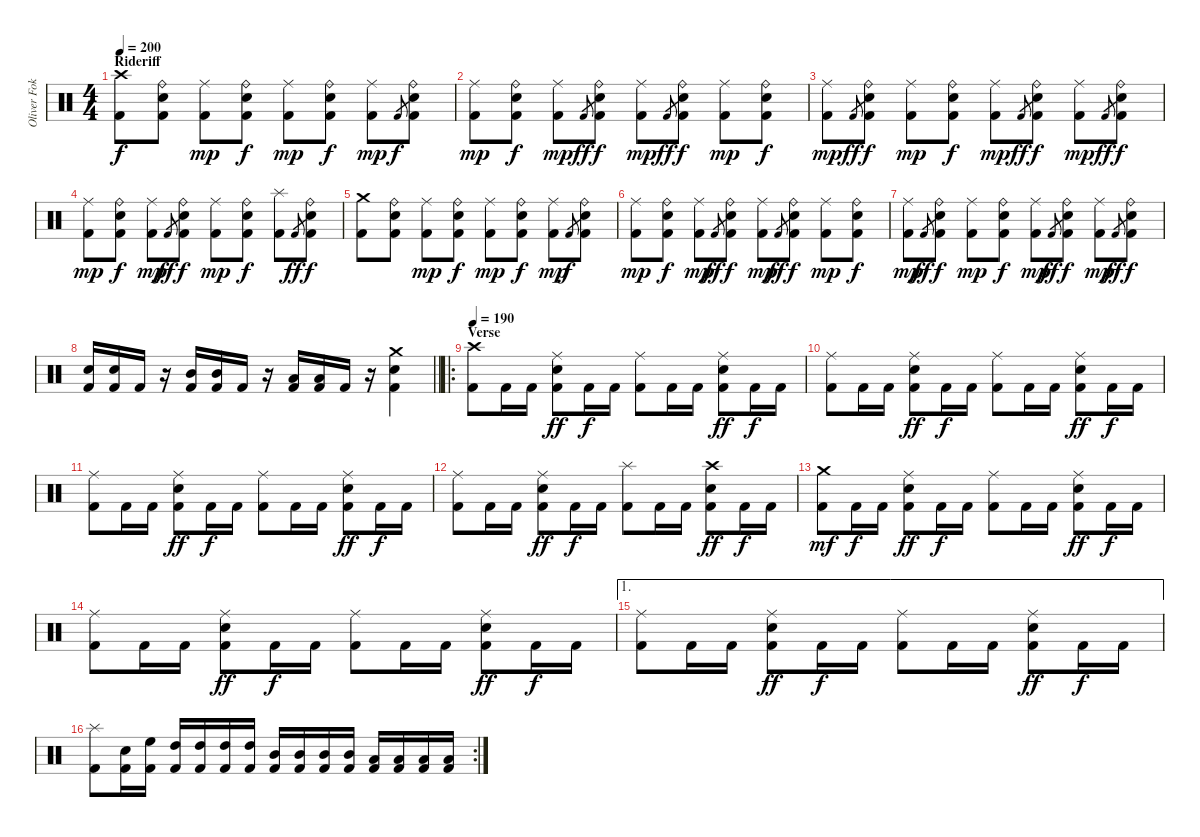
\track ("Oliver Fokin" "Oliver Fok") {instrument percussion}
\staff {score}
\articulation defaults
\ts (4 4)
\section ("" "Rideriff")
\tempo 200
\clef neutral
\ks c
("Crash high (hit)" "Kick (hit) 2").8{dy f} ("Ride (bell)" "Electric Snare (hit)" "Kick (hit) 2").8 ("Ride (middle)" "Kick (hit) 2").8{dy mp} ("Ride (bell)" "Electric Snare (hit)" "Kick (hit) 2").8{dy f} ("Ride (middle)" "Kick (hit) 2").8{dy mp} ("Ride (bell)" "Electric Snare (hit)" "Kick (hit) 2").8{dy f} ("Ride (middle)" "Kick (hit) 2").8{dy mp} "Kick (hit) 2".8{gr dy f} ("Ride (bell)" "Electric Snare (hit)" "Kick (hit) 2").8 |
("Ride (middle)" "Kick (hit) 2").8{dy mp} ("Ride (bell)" "Electric Snare (hit)" "Kick (hit) 2").8{dy f} ("Ride (middle)" "Kick (hit) 2").8{dy mp} "Kick (hit) 2".8{gr dy ff} ("Ride (bell)" "Electric Snare (hit)" "Kick (hit) 2").8{dy f} ("Ride (middle)" "Kick (hit) 2").8{dy mp} "Kick (hit) 2".8{gr dy ff} ("Ride (bell)" "Electric Snare (hit)" "Kick (hit) 2").8{dy f} ("Ride (middle)" "Kick (hit) 2").8{dy mp} ("Ride (bell)" "Electric Snare (hit)" "Kick (hit) 2").8{dy f} |
("Ride (middle)" "Kick (hit) 2").8{dy mp} "Kick (hit) 2".8{gr dy ff} ("Ride (bell)" "Electric Snare (hit)" "Kick (hit) 2").8{dy f} ("Ride (middle)" "Kick (hit) 2").8{dy mp} ("Ride (bell)" "Electric Snare (hit)" "Kick (hit) 2").8{dy f} ("Ride (middle)" "Kick (hit) 2").8{dy mp} "Kick (hit) 2".8{gr dy ff} ("Ride (bell)" "Electric Snare (hit)" "Kick (hit) 2").8{dy f} ("Ride (middle)" "Kick (hit) 2").8{dy mp} "Kick (hit) 2".8{gr dy ff} ("Ride (bell)" "Electric Snare (hit)" "Kick (hit) 2").8{dy f} |
("Ride (middle)" "Kick (hit) 2").8{dy mp} ("Ride (bell)" "Electric Snare (hit)" "Kick (hit) 2").8{dy f} ("Ride (middle)" "Kick (hit) 2").8{dy mp} "Kick (hit) 2".8{gr dy ff} ("Ride (bell)" "Electric Snare (hit)" "Kick (hit) 2").8{dy f} ("Ride (middle)" "Kick (hit) 2").8{dy mp} ("Ride (bell)" "Electric Snare (hit)" "Kick (hit) 2").8{dy f} ("Splash (hit)" "Kick (hit) 2").8 "Kick (hit) 2".8{gr dy ff} ("Ride (bell)" "Electric Snare (hit)" "Kick (hit) 2").8{dy f} |
("Crash medium (hit)" "Kick (hit) 2").8 ("Ride (bell)" "Electric Snare (hit)" "Kick (hit) 2").8 ("Ride (middle)" "Kick (hit) 2").8{dy mp} ("Ride (bell)" "Electric Snare (hit)" "Kick (hit) 2").8{dy f} ("Ride (middle)" "Kick (hit) 2").8{dy mp} ("Ride (bell)" "Electric Snare (hit)" "Kick (hit) 2").8{dy f} ("Ride (middle)" "Kick (hit) 2").8{dy mp} "Kick (hit) 2".8{gr dy f} ("Ride (bell)" "Electric Snare (hit)" "Kick (hit) 2").8 |
("Ride (middle)" "Kick (hit) 2").8{dy mp} ("Ride (bell)" "Electric Snare (hit)" "Kick (hit) 2").8{dy f} ("Ride (middle)" "Kick (hit) 2").8{dy mp} "Kick (hit) 2".8{gr dy ff} ("Ride (bell)" "Electric Snare (hit)" "Kick (hit) 2").8{dy f} ("Ride (middle)" "Kick (hit) 2").8{dy mp} "Kick (hit) 2".8{gr dy ff} ("Ride (bell)" "Electric Snare (hit)" "Kick (hit) 2").8{dy f} ("Ride (middle)" "Kick (hit) 2").8{dy mp} ("Ride (bell)" "Electric Snare (hit)" "Kick (hit) 2").8{dy f} |
("Ride (middle)" "Kick (hit) 2").8{dy mp} "Kick (hit) 2".8{gr dy ff} ("Ride (bell)" "Electric Snare (hit)" "Kick (hit) 2").8{dy f} ("Ride (middle)" "Kick (hit) 2").8{dy mp} ("Ride (bell)" "Electric Snare (hit)" "Kick (hit) 2").8{dy f} ("Ride (middle)" "Kick (hit) 2").8{dy mp} "Kick (hit) 2".8{gr dy ff} ("Ride (bell)" "Electric Snare (hit)" "Kick (hit) 2").8{dy f} ("Ride (middle)" "Kick (hit) 2").8{dy mp} "Kick (hit) 2".8{gr dy ff} ("Ride (bell)" "Electric Snare (hit)" "Kick (hit) 2").8{dy f} |
\barLineRight lightlight
("Electric Snare (hit)" "Kick (hit) 2").16 ("Electric Snare (hit)" "Kick (hit) 2").16 "Kick (hit) 2".16 r.16 ("Mid Tom (hit)" "Kick (hit) 2").16 ("Mid Tom (hit)" "Kick (hit) 2").16 "Kick (hit) 2".16 r.16 ("Low Tom (hit)" "Kick (hit) 2").16 ("Low Tom (hit)" "Kick (hit) 2").16 "Kick (hit) 2".16 r.16 ("Crash medium (hit)" "Electric Snare (hit)" "Kick (hit) 2").4 |
\ro
\section ("" "Verse")
\tempo 190
("Crash high (hit)" "Kick (hit) 2").8 "Kick (hit) 2".16 "Kick (hit) 2".16 ("Ride (middle)" "Electric Snare (hit)" "Kick (hit) 2").8{dy ff} "Kick (hit) 2".16{dy f} "Kick (hit) 2".16 ("Ride (middle)" "Kick (hit) 2").8 "Kick (hit) 2".16 "Kick (hit) 2".16 ("Ride (middle)" "Electric Snare (hit)" "Kick (hit) 2").8{dy ff} "Kick (hit) 2".16{dy f} "Kick (hit) 2".16 |
("Ride (middle)" "Kick (hit) 2").8 "Kick (hit) 2".16 "Kick (hit) 2".16 ("Ride (middle)" "Electric Snare (hit)" "Kick (hit) 2").8{dy ff} "Kick (hit) 2".16{dy f} "Kick (hit) 2".16 ("Ride (middle)" "Kick (hit) 2").8 "Kick (hit) 2".16 "Kick (hit) 2".16 ("Ride (middle)" "Electric Snare (hit)" "Kick (hit) 2").8{dy ff} "Kick (hit) 2".16{dy f} "Kick (hit) 2".16 |
("Ride (middle)" "Kick (hit) 2").8 "Kick (hit) 2".16 "Kick (hit) 2".16 ("Ride (middle)" "Electric Snare (hit)" "Kick (hit) 2").8{dy ff} "Kick (hit) 2".16{dy f} "Kick (hit) 2".16 ("Ride (middle)" "Kick (hit) 2").8 "Kick (hit) 2".16 "Kick (hit) 2".16 ("Ride (middle)" "Electric Snare (hit)" "Kick (hit) 2").8{dy ff} "Kick (hit) 2".16{dy f} "Kick (hit) 2".16 |
("Ride (middle)" "Kick (hit) 2").8 "Kick (hit) 2".16 "Kick (hit) 2".16 ("Ride (middle)" "Electric Snare (hit)" "Kick (hit) 2").8{dy ff} "Kick (hit) 2".16{dy f} "Kick (hit) 2".16 ("Splash (hit)" "Kick (hit) 2").8 "Kick (hit) 2".16 "Kick (hit) 2".16 ("Crash high (hit)" "Electric Snare (hit)" "Kick (hit) 2").8{dy ff} "Kick (hit) 2".16{dy f} "Kick (hit) 2".16 |
("Crash medium (hit)" "Kick (hit) 2").8{dy mf} "Kick (hit) 2".16{dy f} "Kick (hit) 2".16 ("Ride (middle)" "Electric Snare (hit)" "Kick (hit) 2").8{dy ff} "Kick (hit) 2".16{dy f} "Kick (hit) 2".16 ("Ride (middle)" "Kick (hit) 2").8 "Kick (hit) 2".16 "Kick (hit) 2".16 ("Ride (middle)" "Electric Snare (hit)" "Kick (hit) 2").8{dy ff} "Kick (hit) 2".16{dy f} "Kick (hit) 2".16 |
("Ride (middle)" "Kick (hit) 2").8 "Kick (hit) 2".16 "Kick (hit) 2".16 ("Ride (middle)" "Electric Snare (hit)" "Kick (hit) 2").8{dy ff} "Kick (hit) 2".16{dy f} "Kick (hit) 2".16 ("Ride (middle)" "Kick (hit) 2").8 "Kick (hit) 2".16 "Kick (hit) 2".16 ("Ride (middle)" "Electric Snare (hit)" "Kick (hit) 2").8{dy ff} "Kick (hit) 2".16{dy f} "Kick (hit) 2".16 |
\ae 1
("Ride (middle)" "Kick (hit) 2").8 "Kick (hit) 2".16 "Kick (hit) 2".16 ("Ride (middle)" "Electric Snare (hit)" "Kick (hit) 2").8{dy ff} "Kick (hit) 2".16{dy f} "Kick (hit) 2".16 ("Ride (middle)" "Kick (hit) 2").8 "Kick (hit) 2".16 "Kick (hit) 2".16 ("Ride (middle)" "Electric Snare (hit)" "Kick (hit) 2").8{dy ff} "Kick (hit) 2".16{dy f} "Kick (hit) 2".16 |
\rc 2
("Splash (hit)" "Kick (hit) 2").8 ("Electric Snare (hit)" "Kick (hit) 2").16 ("High Floor Tom (hit)" "Kick (hit) 2").16 ("High Tom (hit)" "Kick (hit) 2").16 ("High Tom (hit)" "Kick (hit) 2").16 ("High Tom (hit)" "Kick (hit) 2").16 ("High Tom (hit)" "Kick (hit) 2").16 ("Mid Tom (hit)" "Kick (hit) 2").16 ("Mid Tom (hit)" "Kick (hit) 2").16 ("Mid Tom (hit)" "Kick (hit) 2").16 ("Mid Tom (hit)" "Kick (hit) 2").16 ("Low Tom (hit)" "Kick (hit) 2").16 ("Low Tom (hit)" "Kick (hit) 2").16 ("Low Tom (hit)" "Kick (hit) 2").16 ("Low Tom (hit)" "Kick (hit) 2").16
